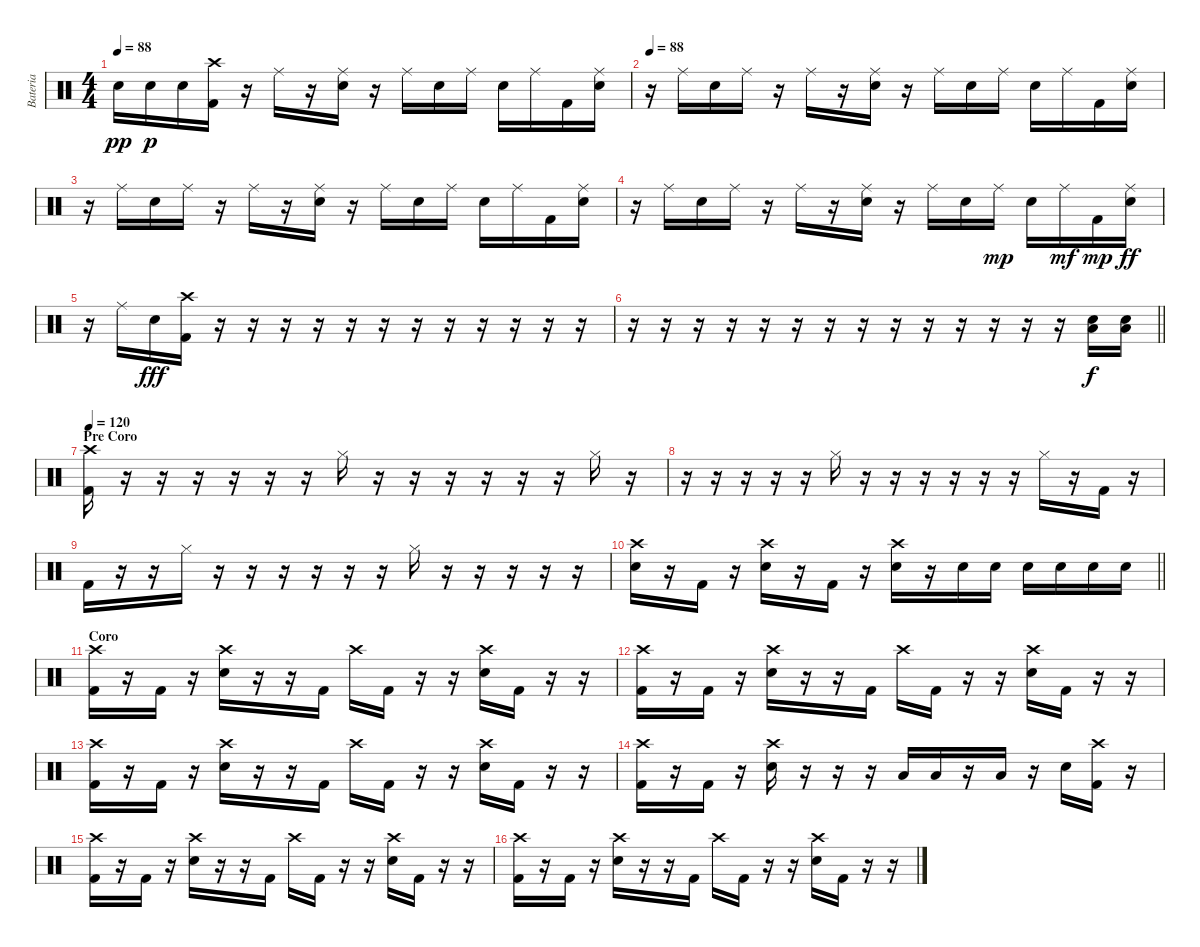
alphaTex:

\track ("Bateria" "Bateria") {instrument percussion}
\staff {score}
\articulation defaults
\ts (4 4)
\tempo 88
\clef neutral
\ks c "Snare (hit) 2".16{dy pp} "Snare (hit) 2".16{dy p} "Snare (hit) 2".16
("Crash high (hit)" "Kick (hit) 2").16 r.16 "Ride (middle)".16 r.16 ("Ride (middle)" "Snare (hit) 2").16 r.16 "Ride (middle)".16 "Snare (hit) 2".16 "Ride (middle)".16 "Snare (hit) 2".16 "Ride (middle)".16 "Kick (hit) 2".16 ("Ride (middle)" "Snare (hit) 2").16 |
\tempo 88
r.16 "Ride (middle)".16 "Snare (hit) 2".16 "Ride (middle)".16 r.16 "Ride (middle)".16 r.16 ("Ride (middle)" "Snare (hit) 2").16 r.16 "Ride (middle)".16 "Snare (hit) 2".16 "Ride (middle)".16 "Snare (hit) 2".16 "Ride (middle)".16 "Kick (hit) 2".16 ("Ride (middle)" "Snare (hit) 2").16 |
r.16 "Ride (middle)".16 "Snare (hit) 2".16 "Ride (middle)".16 r.16 "Ride (middle)".16 r.16 ("Ride (middle)" "Snare (hit) 2").16 r.16 "Ride (middle)".16 "Snare (hit) 2".16 "Ride (middle)".16 "Snare (hit) 2".16 "Ride (middle)".16 "Kick (hit) 2".16 ("Ride (middle)" "Snare (hit) 2").16 |
r.16 "Ride (middle)".16 "Snare (hit) 2".16 "Ride (middle)".16 r.16 "Ride (middle)".16 r.16 ("Ride (middle)" "Snare (hit) 2").16 r.16 "Ride (middle)".16 "Snare (hit) 2".16 "Ride (middle)".16{dy mp} "Snare (hit) 2".16 "Ride (middle)".16{dy mf} "Kick (hit) 2".16{dy mp} ("Ride (middle)" "Snare (hit) 2").16{dy ff} |
r.16 "Ride (middle)".16 "Snare (hit) 2".16{dy fff} ("Crash high (hit)" "Kick (hit) 2").16 r.16 r.16 r.16 r.16 r.16 r.16 r.16 r.16 r.16 r.16 r.16 r.16 |
\barLineRight lightlight
r.16 r.16 r.16 r.16 r.16 r.16 r.16 r.16 r.16 r.16 r.16 r.16 r.16 r.16 ("Low Floor Tom (hit)" "Snare (hit) 2").16{dy f} ("Low Floor Tom (hit)" "Snare (hit) 2").16 |
\section ("" "Pre Coro")
\tempo 120
("Crash high (hit)" "Kick (hit) 2").16 r.16 r.16 r.16 r.16 r.16 r.16 "Hi-Hat (closed)".16 r.16 r.16 r.16 r.16 r.16 r.16 "Hi-Hat (closed)".16 r.16 |
r.16 r.16 r.16 r.16 r.16 "Hi-Hat (closed)".16 r.16 r.16 r.16 r.16 r.16 r.16 "Hi-Hat (closed)".16 r.16 "Kick (hit) 2".16 r.16 |
"Kick (hit) 2".16 r.16 r.16 "Hi-Hat (closed)".16 r.16 r.16 r.16 r.16 r.16 r.16 "Hi-Hat (closed)".16 r.16 r.16 r.16 r.16 r.16 |
\barLineRight lightlight
("Crash high (hit)" "Snare (hit) 2").16 r.16 "Kick (hit) 2".16 r.16 ("Crash high (hit)" "Snare (hit) 2").16 r.16 "Kick (hit) 2".16 r.16 ("Crash high (hit)" "Snare (hit) 2").16 r.16 "Snare (hit) 2".16 "Snare (hit) 2".16 "Snare (hit) 2".16 "Snare (hit) 2".16 "Snare (hit) 2".16 "Snare (hit) 2".16 |
\section ("" "Coro")
("Crash high (hit)" "Kick (hit) 2").16 r.16 "Kick (hit) 2".16 r.16 ("Crash high (hit)" "Snare (hit) 2").16 r.16 r.16 "Kick (hit) 2".16 "Crash high (hit)".16 "Kick (hit) 2".16 r.16 r.16 ("Crash high (hit)" "Snare (hit) 2").16 "Kick (hit) 2".16 r.16 r.16 |
("Crash high (hit)" "Kick (hit) 2").16 r.16 "Kick (hit) 2".16 r.16 ("Crash high (hit)" "Snare (hit) 2").16 r.16 r.16 "Kick (hit) 2".16 "Crash high (hit)".16 "Kick (hit) 2".16 r.16 r.16 ("Crash high (hit)" "Snare (hit) 2").16 "Kick (hit) 2".16 r.16 r.16 |
("Crash high (hit)" "Kick (hit) 2").16 r.16 "Kick (hit) 2".16 r.16 ("Crash high (hit)" "Snare (hit) 2").16 r.16 r.16 "Kick (hit) 2".16 "Crash high (hit)".16 "Kick (hit) 2".16 r.16 r.16 ("Crash high (hit)" "Snare (hit) 2").16 "Kick (hit) 2".16 r.16 r.16 |
("Crash high (hit)" "Kick (hit) 2").16 r.16 "Kick (hit) 2".16 r.16 ("Crash high (hit)" "Snare (hit) 2").16 r.16 r.16 r.16 "Low Tom (hit)".16 "Low Tom (hit)".16 r.16 "Low Floor Tom (hit)".16 r.16 "Snare (hit) 2".16 ("Crash high (hit)" "Kick (hit) 2").16 r.16 |
("Crash high (hit)" "Kick (hit) 2").16 r.16 "Kick (hit) 2".16 r.16 ("Crash high (hit)" "Snare (hit) 2").16 r.16 r.16 "Kick (hit) 2".16 "Crash high (hit)".16 "Kick (hit) 2".16 r.16 r.16 ("Crash high (hit)" "Snare (hit) 2").16 "Kick (hit) 2".16 r.16 r.16 |
("Crash high (hit)" "Kick (hit) 2").16 r.16 "Kick (hit) 2".16 r.16 ("Crash high (hit)" "Snare (hit) 2").16 r.16 r.16 "Kick (hit) 2".16 "Crash high (hit)".16 "Kick (hit) 2".16 r.16 r.16 ("Crash high (hit)" "Snare (hit) 2").16 "Kick (hit) 2".16 r.16 r.16
